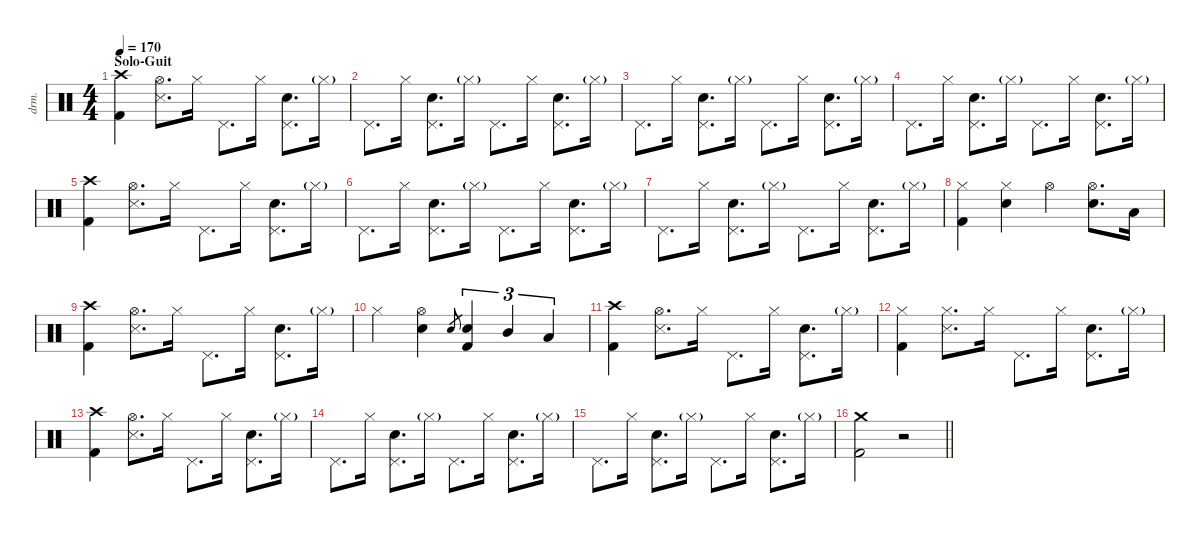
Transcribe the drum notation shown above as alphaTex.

\defaultSystemsLayout 4
\hideDynamics
\bracketExtendMode nobrackets
\otherSystemsTrackNameOrientation horizontal
\track ("Drums" "drm.") {instrument percussion}
\staff {score}
\articulation defaults
\ts (4 4)
\section ("" "Solo-Guit")
\tempo 170
\clef neutral
\ks c
("Crash high (hit)" "Kick (hit) 2").4{dy f beam Down} ("Hi-Hat (open)" "Snare (side stick) 3").8{d beam Down} "Hi-Hat (closed)".16{beam Down} "Pedal Hi-Hat (hit)".8{d beam Down} "Hi-Hat (closed)".16{beam Down} ("Pedal Hi-Hat (hit)" "Snare (hit) 2").8{d beam Down} "Hi-Hat (closed)"{g}.16{dy mf beam Down} |
"Pedal Hi-Hat (hit)".8{d dy f beam Down} "Hi-Hat (closed)".16{beam Down} ("Pedal Hi-Hat (hit)" "Snare (hit) 2").8{d beam Down} "Hi-Hat (closed)"{g}.16{dy mf beam Down} "Pedal Hi-Hat (hit)".8{d dy f beam Down} "Hi-Hat (closed)".16{beam Down} ("Pedal Hi-Hat (hit)" "Snare (hit) 2").8{d beam Down} "Hi-Hat (closed)"{g}.16{dy mf beam Down} |
"Pedal Hi-Hat (hit)".8{d dy f beam Down} "Hi-Hat (closed)".16{beam Down} ("Pedal Hi-Hat (hit)" "Snare (hit) 2").8{d beam Down} "Hi-Hat (closed)"{g}.16{dy mf beam Down} "Pedal Hi-Hat (hit)".8{d dy f beam Down} "Hi-Hat (closed)".16{beam Down} ("Pedal Hi-Hat (hit)" "Snare (hit) 2").8{d beam Down} "Hi-Hat (closed)"{g}.16{dy mf beam Down} |
"Pedal Hi-Hat (hit)".8{d dy f beam Down} "Hi-Hat (closed)".16{beam Down} ("Pedal Hi-Hat (hit)" "Snare (hit) 2").8{d beam Down} "Hi-Hat (closed)"{g}.16{dy mf beam Down} "Pedal Hi-Hat (hit)".8{d dy f beam Down} "Hi-Hat (closed)".16{beam Down} ("Pedal Hi-Hat (hit)" "Snare (hit) 2").8{d beam Down} "Hi-Hat (closed)"{g}.16{dy mf beam Down} |
("Crash high (hit)" "Kick (hit) 2").4{dy f beam Down} ("Hi-Hat (open)" "Snare (side stick) 3").8{d beam Down} "Hi-Hat (closed)".16{beam Down} "Pedal Hi-Hat (hit)".8{d beam Down} "Hi-Hat (closed)".16{beam Down} ("Pedal Hi-Hat (hit)" "Snare (hit) 2").8{d beam Down} "Hi-Hat (closed)"{g}.16{dy mf beam Down} |
"Pedal Hi-Hat (hit)".8{d dy f beam Down} "Hi-Hat (closed)".16{beam Down} ("Pedal Hi-Hat (hit)" "Snare (hit) 2").8{d beam Down} "Hi-Hat (closed)"{g}.16{dy mf beam Down} "Pedal Hi-Hat (hit)".8{d dy f beam Down} "Hi-Hat (closed)".16{beam Down} ("Pedal Hi-Hat (hit)" "Snare (hit) 2").8{d beam Down} "Hi-Hat (closed)"{g}.16{dy mf beam Down} |
"Pedal Hi-Hat (hit)".8{d dy f beam Down} "Hi-Hat (closed)".16{beam Down} ("Pedal Hi-Hat (hit)" "Snare (hit) 2").8{d beam Down} "Hi-Hat (closed)"{g}.16{dy mf beam Down} "Pedal Hi-Hat (hit)".8{d dy f beam Down} "Hi-Hat (closed)".16{beam Down} ("Pedal Hi-Hat (hit)" "Snare (hit) 2").8{d beam Down} "Hi-Hat (closed)"{g}.16{dy mf beam Down} |
("Hi-Hat (closed)" "Kick (hit) 2").4{dy f beam Down} ("Hi-Hat (closed)" "Snare (hit) 2").4{beam Down} "Hi-Hat (open)".4{beam Down} ("Hi-Hat (open)" "Snare (hit) 2").8{d beam Down} "Low Tom (hit)".16{beam Down} |
("Crash high (hit)" "Kick (hit) 2").4{beam Down} ("Hi-Hat (open)" "Snare (side stick) 3").8{d beam Down} "Hi-Hat (closed)".16{beam Down} "Pedal Hi-Hat (hit)".8{d beam Down} "Hi-Hat (closed)".16{beam Down} ("Pedal Hi-Hat (hit)" "Snare (hit) 2").8{d beam Down} "Hi-Hat (closed)"{g}.16{dy mf beam Down} |
"Hi-Hat (closed)".4{dy f beam Down} ("Hi-Hat (open)" "Snare (hit) 2").4{beam Down} "Snare (hit) 2".8{gr dy mf beam Up} ("Snare (hit) 2" "Kick (hit) 2").4{tu (3 2) dy f beam Up} "Mid Tom (hit)".4{tu (3 2) beam Up} "Low Tom (hit)".4{tu (3 2) beam Up} |
("Crash high (hit)" "Kick (hit) 2").4{beam Down} ("Hi-Hat (open)" "Snare (side stick) 3").8{d beam Down} "Hi-Hat (closed)".16{beam Down} "Pedal Hi-Hat (hit)".8{d beam Down} "Hi-Hat (closed)".16{beam Down} ("Pedal Hi-Hat (hit)" "Snare (hit) 2").8{d beam Down} "Hi-Hat (closed)"{g}.16{dy mf beam Down} |
("Hi-Hat (closed)" "Kick (hit) 2").4{dy f beam Down} ("Hi-Hat (closed)" "Snare (side stick) 3").8{d beam Down} "Hi-Hat (closed)".16{beam Down} "Pedal Hi-Hat (hit)".8{d beam Down} "Hi-Hat (closed)".16{beam Down} ("Pedal Hi-Hat (hit)" "Snare (hit) 2").8{d beam Down} "Hi-Hat (closed)"{g}.16{dy mf beam Down} |
("Crash high (hit)" "Kick (hit) 2").4{dy f beam Down} ("Hi-Hat (open)" "Snare (side stick) 3").8{d beam Down} "Hi-Hat (closed)".16{beam Down} "Pedal Hi-Hat (hit)".8{d beam Down} "Hi-Hat (closed)".16{beam Down} ("Pedal Hi-Hat (hit)" "Snare (hit) 2").8{d beam Down} "Hi-Hat (closed)"{g}.16{dy mf beam Down} |
"Pedal Hi-Hat (hit)".8{d dy f beam Down} "Hi-Hat (closed)".16{beam Down} ("Pedal Hi-Hat (hit)" "Snare (hit) 2").8{d beam Down} "Hi-Hat (closed)"{g}.16{dy mf beam Down} "Pedal Hi-Hat (hit)".8{d dy f beam Down} "Hi-Hat (closed)".16{beam Down} ("Pedal Hi-Hat (hit)" "Snare (hit) 2").8{d beam Down} "Hi-Hat (closed)"{g}.16{dy mf beam Down} |
"Pedal Hi-Hat (hit)".8{d dy f beam Down} "Hi-Hat (closed)".16{beam Down} ("Pedal Hi-Hat (hit)" "Snare (hit) 2").8{d beam Down} "Hi-Hat (closed)"{g}.16{dy mf beam Down} "Pedal Hi-Hat (hit)".8{d dy f beam Down} "Hi-Hat (closed)".16{beam Down} ("Pedal Hi-Hat (hit)" "Snare (hit) 2").8{d beam Down} "Hi-Hat (closed)"{g}.16{dy mf beam Down} |
\barLineRight lightlight
("Crash medium (hit)" "Kick (hit) 2").2{dy f beam Down} r.2{beam Down}
